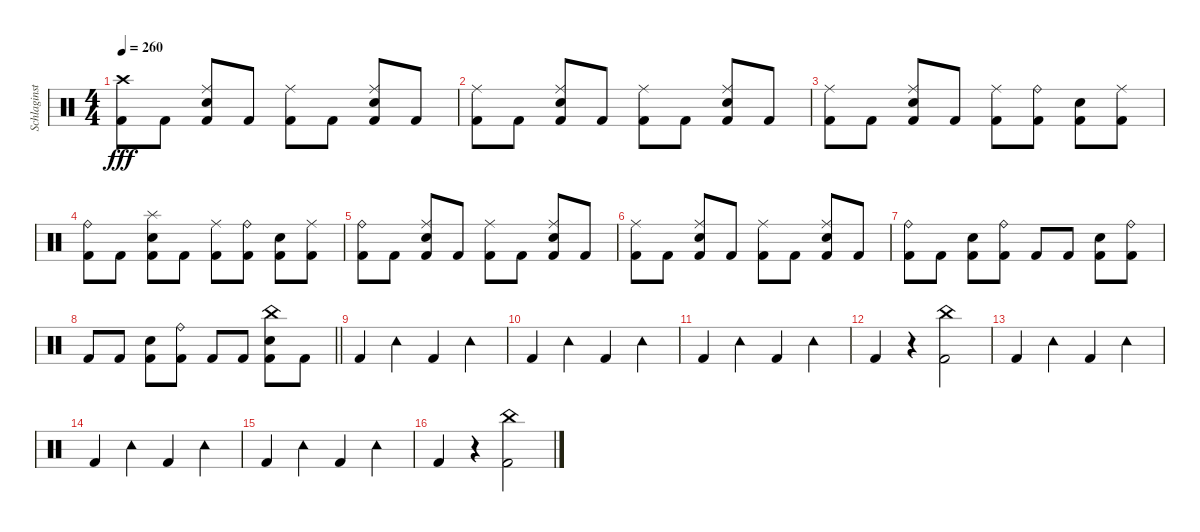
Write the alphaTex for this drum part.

\track ("Schlaginstrumente - Auswahl" "Schlaginst") {instrument percussion}
\staff {score}
\articulation defaults
\ts (4 4)
\tempo 260
\clef neutral
\ks c
("Crash high (hit)" "Kick (hit) 2").8{dy fff} "Kick (hit) 2".8 ("Ride (middle)" "Snare (hit) 2" "Kick (hit) 2").8 "Kick (hit) 2".8 ("Ride (middle)" "Kick (hit) 2").8 "Kick (hit) 2".8 ("Ride (middle)" "Snare (hit) 2" "Kick (hit) 2").8 "Kick (hit) 2".8 |
("Ride (middle)" "Kick (hit) 2").8 "Kick (hit) 2".8 ("Ride (middle)" "Snare (hit) 2" "Kick (hit) 2").8 "Kick (hit) 2".8 ("Ride (middle)" "Kick (hit) 2").8 "Kick (hit) 2".8 ("Ride (middle)" "Snare (hit) 2" "Kick (hit) 2").8 "Kick (hit) 2".8 |
("Ride (middle)" "Kick (hit) 2").8 "Kick (hit) 2".8 ("Ride (middle)" "Snare (hit) 2" "Kick (hit) 2").8 "Kick (hit) 2".8 ("Ride (middle)" "Kick (hit) 2").8 ("Ride (bell)" "Kick (hit) 2").8 ("Snare (hit) 2" "Kick (hit) 2").8 ("Ride (middle)" "Kick (hit) 2").8 |
("Ride (bell)" "Kick (hit) 2").8 "Kick (hit) 2".8 ("Splash (hit)" "Snare (hit) 2" "Kick (hit) 2").8 "Kick (hit) 2".8 ("Ride (middle)" "Kick (hit) 2").8 ("Ride (bell)" "Kick (hit) 2").8 ("Snare (hit) 2" "Kick (hit) 2").8 ("Ride (middle)" "Kick (hit) 2").8 |
("Ride (bell)" "Kick (hit) 2").8 "Kick (hit) 2".8 ("Ride (middle)" "Snare (hit) 2" "Kick (hit) 2").8 "Kick (hit) 2".8 ("Ride (middle)" "Kick (hit) 2").8 "Kick (hit) 2".8 ("Ride (middle)" "Snare (hit) 2" "Kick (hit) 2").8 "Kick (hit) 2".8 |
("Ride (middle)" "Kick (hit) 2").8 "Kick (hit) 2".8 ("Ride (middle)" "Snare (hit) 2" "Kick (hit) 2").8 "Kick (hit) 2".8 ("Ride (middle)" "Kick (hit) 2").8 "Kick (hit) 2".8 ("Ride (middle)" "Snare (hit) 2" "Kick (hit) 2").8 "Kick (hit) 2".8 |
("Ride (bell)" "Kick (hit) 2").8 "Kick (hit) 2".8 ("Snare (hit) 2" "Kick (hit) 2").8 ("Ride (bell)" "Kick (hit) 2").8 "Kick (hit) 2".8 "Kick (hit) 2".8 ("Snare (hit) 2" "Kick (hit) 2").8 ("Ride (bell)" "Kick (hit) 2").8 |
\barLineRight lightlight "Kick (hit) 2".8 "Kick (hit) 2".8
("Snare (hit) 2" "Kick (hit) 2").8 ("Ride (bell)" "Kick (hit) 2").8 "Kick (hit) 2".8 "Kick (hit) 2".8 ("China (hit)" "Snare (hit) 2" "Kick (hit) 2").8 "Kick (hit) 2".8 |
"Kick (hit) 2".4 "Tambourine (hit)".4 "Kick (hit) 2".4 "Tambourine (hit)".4 |
"Kick (hit) 2".4 "Tambourine (hit)".4 "Kick (hit) 2".4 "Tambourine (hit)".4 |
"Kick (hit) 2".4 "Tambourine (hit)".4 "Kick (hit) 2".4 "Tambourine (hit)".4 |
"Kick (hit) 2".4 r.4 ("China (hit)" "Kick (hit) 2").2 |
"Kick (hit) 2".4 "Tambourine (hit)".4 "Kick (hit) 2".4 "Tambourine (hit)".4 |
"Kick (hit) 2".4 "Tambourine (hit)".4 "Kick (hit) 2".4 "Tambourine (hit)".4 |
"Kick (hit) 2".4 "Tambourine (hit)".4 "Kick (hit) 2".4 "Tambourine (hit)".4 |
"Kick (hit) 2".4 r.4 ("China (hit)" "Kick (hit) 2").2
